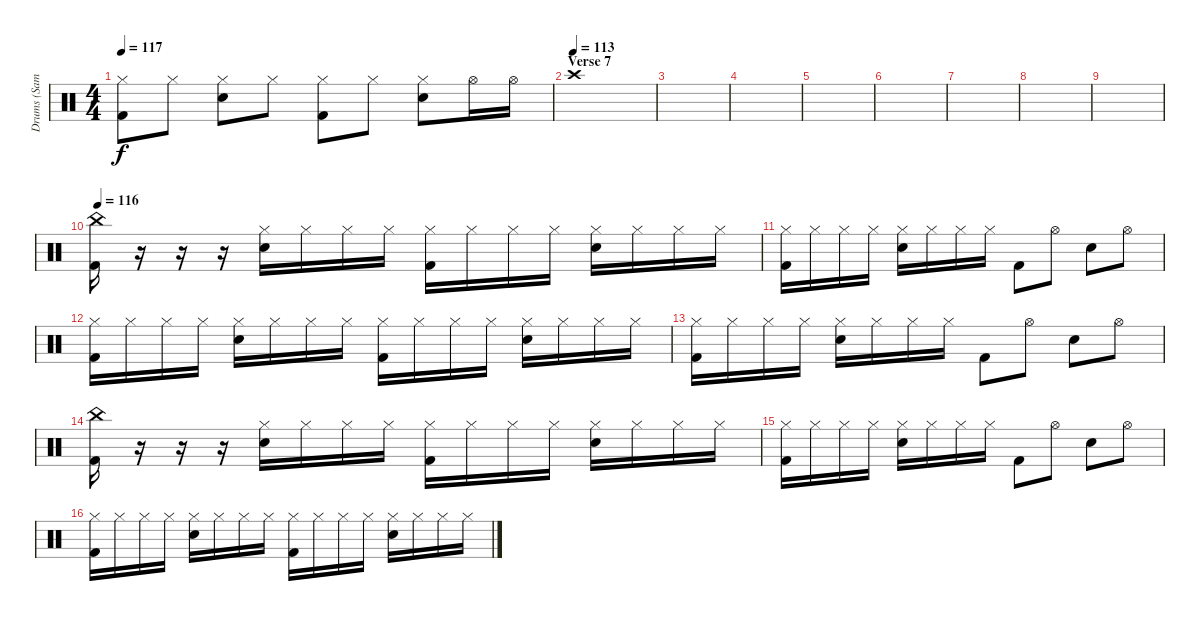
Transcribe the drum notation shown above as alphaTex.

\track ("Drums (Sam)" "Drums (Sam") {instrument percussion}
\staff {score}
\articulation defaults
\ts (4 4)
\tempo 117
\clef neutral
\ks c
("Hi-Hat (closed)" "Kick (hit) 2").8{dy f} "Hi-Hat (closed)".8 ("Hi-Hat (closed)" "Snare (hit) 2").8 "Hi-Hat (closed)".8 ("Hi-Hat (closed)" "Kick (hit) 2").8 "Hi-Hat (closed)".8 ("Hi-Hat (closed)" "Snare (hit) 2").8 "Hi-Hat (open)".16 "Hi-Hat (open)".16 |
\section ("" "Verse 7")
\tempo (113)
"Crash high (hit)".1 |
|
|
|
|
|
|
|
\tempo 116
("China (hit)" "Kick (hit) 2").16 r.16 r.16 r.16 ("Hi-Hat (closed)" "Snare (hit) 2").16 "Hi-Hat (closed)".16 "Hi-Hat (closed)".16 "Hi-Hat (closed)".16 ("Hi-Hat (closed)" "Kick (hit) 2").16 "Hi-Hat (closed)".16 "Hi-Hat (closed)".16 "Hi-Hat (closed)".16 ("Hi-Hat (closed)" "Snare (hit) 2").16 "Hi-Hat (closed)".16 "Hi-Hat (closed)".16 "Hi-Hat (closed)".16 |
("Hi-Hat (closed)" "Kick (hit) 2").16 "Hi-Hat (closed)".16 "Hi-Hat (closed)".16 "Hi-Hat (closed)".16 ("Hi-Hat (closed)" "Snare (hit) 2").16 "Hi-Hat (closed)".16 "Hi-Hat (closed)".16 "Hi-Hat (closed)".16 "Kick (hit) 2".8 "Hi-Hat (open)".8 "Snare (hit) 2".8 "Hi-Hat (open)".8 |
("Hi-Hat (closed)" "Kick (hit) 2").16 "Hi-Hat (closed)".16 "Hi-Hat (closed)".16 "Hi-Hat (closed)".16 ("Hi-Hat (closed)" "Snare (hit) 2").16 "Hi-Hat (closed)".16 "Hi-Hat (closed)".16 "Hi-Hat (closed)".16 ("Hi-Hat (closed)" "Kick (hit) 2").16 "Hi-Hat (closed)".16 "Hi-Hat (closed)".16 "Hi-Hat (closed)".16 ("Hi-Hat (closed)" "Snare (hit) 2").16 "Hi-Hat (closed)".16 "Hi-Hat (closed)".16 "Hi-Hat (closed)".16 |
("Hi-Hat (closed)" "Kick (hit) 2").16 "Hi-Hat (closed)".16 "Hi-Hat (closed)".16 "Hi-Hat (closed)".16 ("Hi-Hat (closed)" "Snare (hit) 2").16 "Hi-Hat (closed)".16 "Hi-Hat (closed)".16 "Hi-Hat (closed)".16 "Kick (hit) 2".8 "Hi-Hat (open)".8 "Snare (hit) 2".8 "Hi-Hat (open)".8 |
("China (hit)" "Kick (hit) 2").16 r.16 r.16 r.16 ("Hi-Hat (closed)" "Snare (hit) 2").16 "Hi-Hat (closed)".16 "Hi-Hat (closed)".16 "Hi-Hat (closed)".16 ("Hi-Hat (closed)" "Kick (hit) 2").16 "Hi-Hat (closed)".16 "Hi-Hat (closed)".16 "Hi-Hat (closed)".16 ("Hi-Hat (closed)" "Snare (hit) 2").16 "Hi-Hat (closed)".16 "Hi-Hat (closed)".16 "Hi-Hat (closed)".16 |
("Hi-Hat (closed)" "Kick (hit) 2").16 "Hi-Hat (closed)".16 "Hi-Hat (closed)".16 "Hi-Hat (closed)".16 ("Hi-Hat (closed)" "Snare (hit) 2").16 "Hi-Hat (closed)".16 "Hi-Hat (closed)".16 "Hi-Hat (closed)".16 "Kick (hit) 2".8 "Hi-Hat (open)".8 "Snare (hit) 2".8 "Hi-Hat (open)".8 |
("Hi-Hat (closed)" "Kick (hit) 2").16 "Hi-Hat (closed)".16 "Hi-Hat (closed)".16 "Hi-Hat (closed)".16 ("Hi-Hat (closed)" "Snare (hit) 2").16 "Hi-Hat (closed)".16 "Hi-Hat (closed)".16 "Hi-Hat (closed)".16 ("Hi-Hat (closed)" "Kick (hit) 2").16 "Hi-Hat (closed)".16 "Hi-Hat (closed)".16 "Hi-Hat (closed)".16 ("Hi-Hat (closed)" "Snare (hit) 2").16 "Hi-Hat (closed)".16 "Hi-Hat (closed)".16 "Hi-Hat (closed)".16
